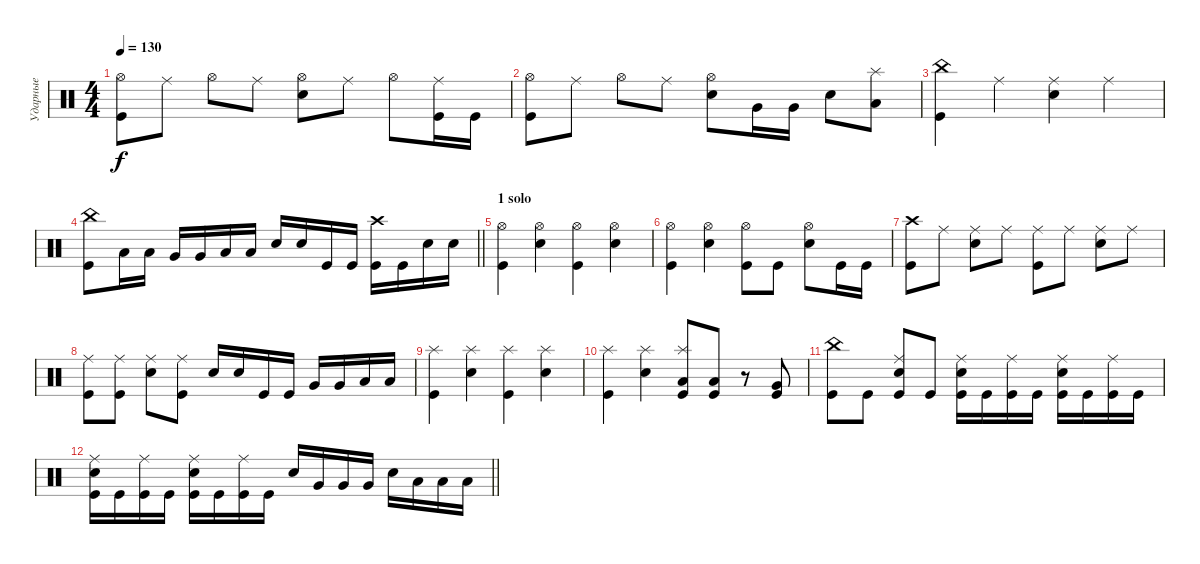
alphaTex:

\track ("Ударные" "Ударные") {instrument percussion}
\staff {score}
\articulation defaults
\ts (4 4)
\tempo 130
\clef neutral
\ks c
("Hi-Hat (open)" "Kick (hit)").8{dy f} "Ride (middle)".8 "Hi-Hat (open)".8 "Ride (middle)".8 ("Hi-Hat (open)" "Electric Snare (hit)").8 "Ride (middle)".8 "Hi-Hat (open)".8 ("Ride (middle)" "Kick (hit)").16 "Kick (hit)".16 |
("Hi-Hat (open)" "Kick (hit)").8 "Ride (middle)".8 "Hi-Hat (open)".8 "Ride (middle)".8 ("Hi-Hat (open)" "Electric Snare (hit)").8 "Very Low Tom (hit)".16 "Very Low Tom (hit)".16 "Electric Snare (hit)".8 ("Splash (hit)" "Low Floor Tom (hit)").8 |
("China (hit)" "Kick (hit)").4 "Ride (middle)".4 ("Ride (middle)" "Electric Snare (hit)").4 "Ride (middle)".4 |
\barLineRight lightlight
("China (hit)" "Kick (hit)").8 "Low Tom (hit)".16 "Low Tom (hit)".16 "Very Low Tom (hit)".16 "Very Low Tom (hit)".16 "Low Floor Tom (hit)".16 "Low Floor Tom (hit)".16 "Electric Snare (hit)".16 "Electric Snare (hit)".16 "Kick (hit)".16 "Kick (hit)".16 ("Crash high (hit)" "Kick (hit)").16 "Kick (hit)".16 "Electric Snare (hit)".16 "Electric Snare (hit)".16 |
\section ("" "1 solo")
("Hi-Hat (open)" "Kick (hit)").4 ("Hi-Hat (open)" "Electric Snare (hit)").4 ("Hi-Hat (open)" "Kick (hit)").4 ("Hi-Hat (open)" "Electric Snare (hit)").4 |
("Hi-Hat (open)" "Kick (hit)").4 ("Hi-Hat (open)" "Electric Snare (hit)").4 ("Hi-Hat (open)" "Kick (hit)").8 "Kick (hit)".8 ("Hi-Hat (open)" "Electric Snare (hit)").8 "Kick (hit)".16 "Kick (hit)".16 |
("Crash high (hit)" "Kick (hit)").8 "Ride (middle)".8 ("Ride (middle)" "Electric Snare (hit)").8 "Ride (middle)".8 ("Ride (middle)" "Kick (hit)").8 "Ride (middle)".8 ("Ride (middle)" "Electric Snare (hit)").8 "Ride (middle)".8 |
("Ride (middle)" "Kick (hit)").8 ("Ride (middle)" "Kick (hit)").8 ("Ride (middle)" "Electric Snare (hit)").8 ("Ride (middle)" "Kick (hit)").8 "Electric Snare (hit)".16 "Electric Snare (hit)".16 "Kick (hit)".16 "Kick (hit)".16 "Very Low Tom (hit)".16 "Very Low Tom (hit)".16 "Low Floor Tom (hit)".16 "Low Floor Tom (hit)".16 |
("Splash (hit)" "Kick (hit)").4 ("Splash (hit)" "Electric Snare (hit)").4 ("Splash (hit)" "Kick (hit)").4 ("Splash (hit)" "Electric Snare (hit)").4 |
("Splash (hit)" "Kick (hit)").4 ("Splash (hit)" "Electric Snare (hit)").4 ("Splash (hit)" "Low Tom (hit)" "Kick (hit)").8 ("Low Tom (hit)" "Kick (hit)").8 r.8 ("Very Low Tom (hit)" "Kick (hit)").8 |
("China (hit)" "Kick (hit)").8 "Kick (hit)".8 ("Ride (middle)" "Electric Snare (hit)" "Kick (hit)").8 "Kick (hit)".8 ("Ride (middle)" "Electric Snare (hit)" "Kick (hit)").16 "Kick (hit)".16 ("Ride (middle)" "Kick (hit)").16 "Kick (hit)".16 ("Ride (middle)" "Electric Snare (hit)" "Kick (hit)").16 "Kick (hit)".16 ("Ride (middle)" "Kick (hit)").16 "Kick (hit)".16 |
\barLineRight lightlight
("Ride (middle)" "Electric Snare (hit)" "Kick (hit)").16 "Kick (hit)".16 ("Ride (middle)" "Kick (hit)").16 "Kick (hit)".16 ("Ride (middle)" "Electric Snare (hit)" "Kick (hit)").16 "Kick (hit)".16 ("Ride (middle)" "Kick (hit)").16 "Kick (hit)".16 "Electric Snare (hit)".16 "Very Low Tom (hit)".16 "Very Low Tom (hit)".16 "Very Low Tom (hit)".16 "Electric Snare (hit)".16 "Low Floor Tom (hit)".16 "Low Floor Tom (hit)".16 "Low Floor Tom (hit)".16
